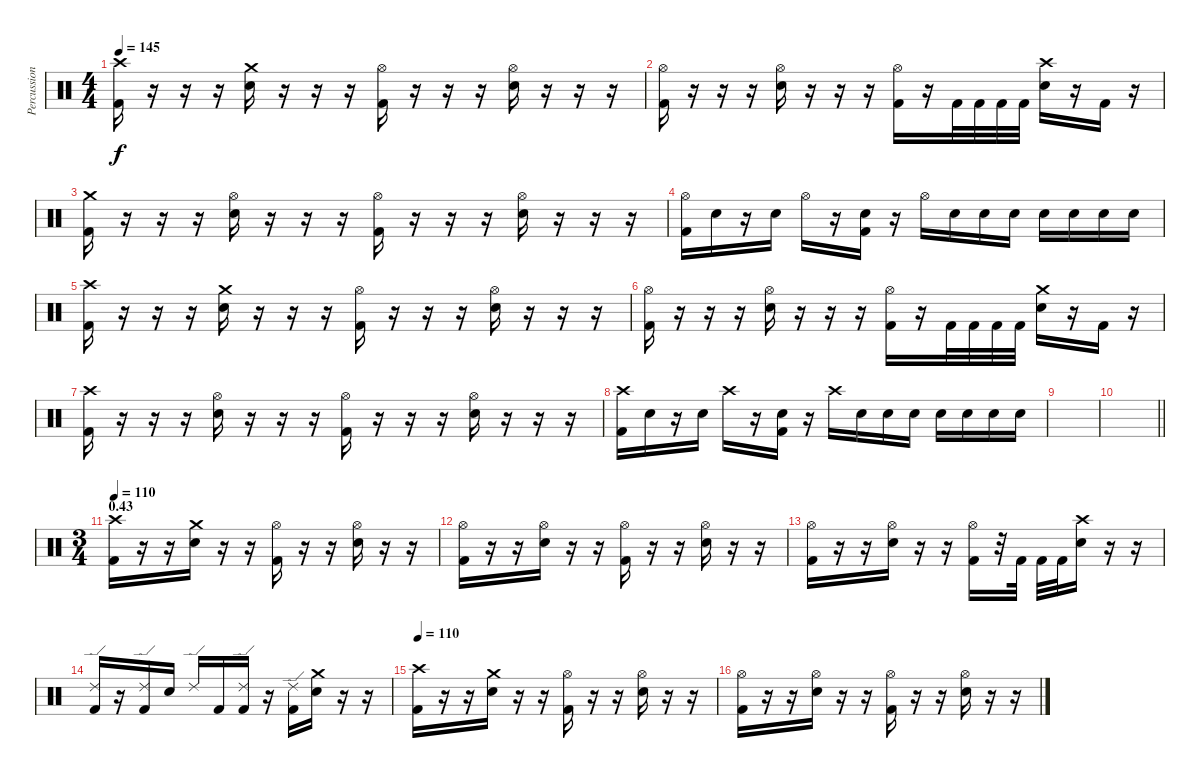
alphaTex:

\track ("Percussion" "Percussion") {instrument percussion}
\staff {score}
\articulation defaults
\ts (4 4)
\tempo 145
\clef neutral
\ks c
("Crash high (hit)" "Kick (hit) 2").16{dy f} r.16 r.16 r.16 ("Crash medium (hit)" "Snare (hit) 2").16 r.16 r.16 r.16 ("Hi-Hat (open)" "Kick (hit) 2").16 r.16 r.16 r.16 ("Hi-Hat (open)" "Snare (hit) 2").16 r.16 r.16 r.16 |
("Hi-Hat (open)" "Kick (hit) 2").16 r.16 r.16 r.16 ("Hi-Hat (open)" "Snare (hit) 2").16 r.16 r.16 r.16 ("Hi-Hat (open)" "Kick (hit) 2").16 r.16 "Kick (hit) 2".32 "Kick (hit) 2".32 "Kick (hit) 2".32 "Kick (hit) 2".32 ("Crash high (hit)" "Snare (hit) 2").16 r.16 "Kick (hit) 2".16 r.16 |
("Crash medium (hit)" "Kick (hit) 2").16 r.16 r.16 r.16 ("Hi-Hat (open)" "Snare (hit) 2").16 r.16 r.16 r.16 ("Hi-Hat (open)" "Kick (hit) 2").16 r.16 r.16 r.16 ("Hi-Hat (open)" "Snare (hit) 2").16 r.16 r.16 r.16 |
("Hi-Hat (open)" "Kick (hit) 2").16 "Snare (hit) 2".16 r.16 "Snare (hit) 2".16 "Hi-Hat (open)".16 r.16 ("Snare (hit) 2" "Kick (hit) 2").16 r.16 "Hi-Hat (open)".16 "Snare (hit) 2".16 "Snare (hit) 2".16 "Snare (hit) 2".16 "Snare (hit) 2".16 "Snare (hit) 2".16 "Snare (hit) 2".16 "Snare (hit) 2".16 |
("Crash high (hit)" "Kick (hit) 2").16 r.16 r.16 r.16 ("Crash medium (hit)" "Snare (hit) 2").16 r.16 r.16 r.16 ("Hi-Hat (open)" "Kick (hit) 2").16 r.16 r.16 r.16 ("Hi-Hat (open)" "Snare (hit) 2").16 r.16 r.16 r.16 |
("Hi-Hat (open)" "Kick (hit) 2").16 r.16 r.16 r.16 ("Hi-Hat (open)" "Snare (hit) 2").16 r.16 r.16 r.16 ("Hi-Hat (open)" "Kick (hit) 2").16 r.16 "Kick (hit) 2".32 "Kick (hit) 2".32 "Kick (hit) 2".32 "Kick (hit) 2".32 ("Crash medium (hit)" "Snare (hit) 2").16 r.16 "Kick (hit) 2".16 r.16 |
("Crash high (hit)" "Kick (hit) 2").16 r.16 r.16 r.16 ("Hi-Hat (open)" "Snare (hit) 2").16 r.16 r.16 r.16 ("Hi-Hat (open)" "Kick (hit) 2").16 r.16 r.16 r.16 ("Hi-Hat (open)" "Snare (hit) 2").16 r.16 r.16 r.16 |
("Crash high (hit)" "Kick (hit) 2").16 "Snare (hit) 2".16 r.16 "Snare (hit) 2".16 "Crash high (hit)".16 r.16 ("Snare (hit) 2" "Kick (hit) 2").16 r.16 "Crash high (hit)".16 "Snare (hit) 2".16 "Snare (hit) 2".16 "Snare (hit) 2".16 "Snare (hit) 2".16 "Snare (hit) 2".16 "Snare (hit) 2".16 "Snare (hit) 2".16 |
|
\barLineRight lightlight
|
\ts (3 4)
\section ("" "0.43")
\tempo 110
("Crash high (hit)" "Kick (hit) 2").16 r.16 r.16 ("Crash medium (hit)" "Snare (hit) 2").16 r.16 r.16 ("Hi-Hat (open)" "Kick (hit) 2").16 r.16 r.16 ("Hi-Hat (open)" "Snare (hit) 2").16 r.16 r.16 |
("Hi-Hat (open)" "Kick (hit) 2").16 r.16 r.16 ("Hi-Hat (open)" "Snare (hit) 2").16 r.16 r.16 ("Hi-Hat (open)" "Kick (hit) 2").16 r.16 r.16 ("Hi-Hat (open)" "Snare (hit) 2").16 r.16 r.16 |
("Hi-Hat (open)" "Kick (hit) 2").16 r.16 r.16 ("Hi-Hat (open)" "Snare (hit) 2").16 r.16 r.16 ("Hi-Hat (open)" "Kick (hit) 2").16 r.32 "Kick (hit) 2".32 "Kick (hit) 2".32 "Kick (hit) 2".32 ("Crash high (hit)" "Snare (hit) 2").16 r.16 r.16 |
("Ride (edge) 2" "Kick (hit) 2").16 r.16 ("Ride (edge) 2" "Kick (hit) 2").16 "Snare (hit) 2".16 "Ride (edge) 2".16 "Kick (hit) 2".16 ("Ride (edge) 2" "Kick (hit) 2").16 r.16 ("Ride (edge) 2" "Kick (hit) 2").16 ("Crash medium (hit)" "Snare (hit) 2").16 r.16 r.16 |
\tempo 110
("Crash high (hit)" "Kick (hit) 2").16 r.16 r.16 ("Crash medium (hit)" "Snare (hit) 2").16 r.16 r.16 ("Hi-Hat (open)" "Kick (hit) 2").16 r.16 r.16 ("Hi-Hat (open)" "Snare (hit) 2").16 r.16 r.16 |
("Hi-Hat (open)" "Kick (hit) 2").16 r.16 r.16 ("Hi-Hat (open)" "Snare (hit) 2").16 r.16 r.16 ("Hi-Hat (open)" "Kick (hit) 2").16 r.16 r.16 ("Hi-Hat (open)" "Snare (hit) 2").16 r.16 r.16
